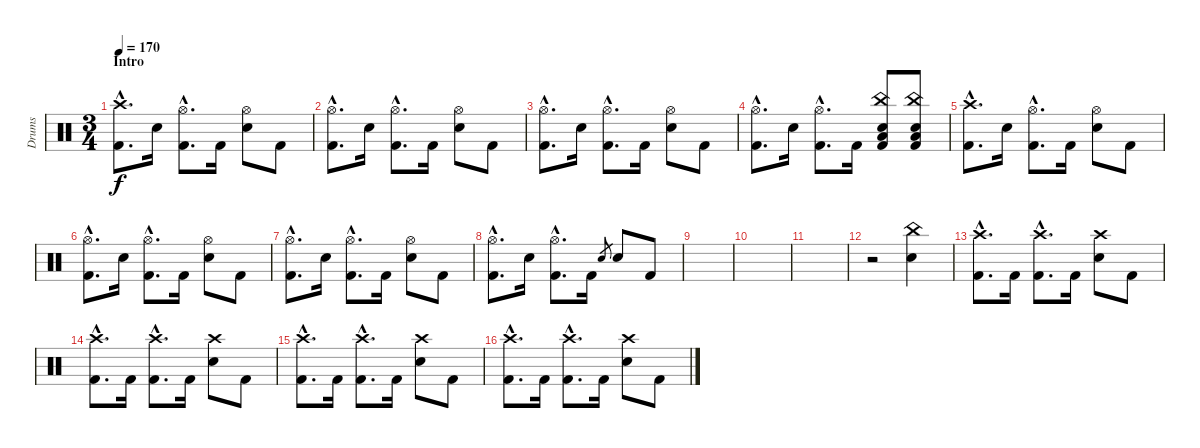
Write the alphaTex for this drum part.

\track ("Drums" "Drums") {instrument percussion}
\staff {score}
\articulation defaults
\ts (3 4)
\section ("" "Intro")
\tempo 170
\clef neutral
\ks c
("Crash high (hit)"{hac} "Kick (hit) 2"{hac}).8{d dy f} "Electric Snare (hit)".16 ("Hi-Hat (open)"{hac} "Kick (hit) 2"{hac}).8{d} "Kick (hit) 2".16 ("Hi-Hat (open)" "Electric Snare (hit)").8 "Kick (hit) 2".8 |
("Hi-Hat (open)"{hac} "Kick (hit) 2"{hac}).8{d} "Electric Snare (hit)".16 ("Hi-Hat (open)"{hac} "Kick (hit) 2"{hac}).8{d} "Kick (hit) 2".16 ("Hi-Hat (open)" "Electric Snare (hit)").8 "Kick (hit) 2".8 |
("Hi-Hat (open)"{hac} "Kick (hit) 2"{hac}).8{d} "Electric Snare (hit)".16 ("Hi-Hat (open)"{hac} "Kick (hit) 2"{hac}).8{d} "Kick (hit) 2".16 ("Hi-Hat (open)" "Electric Snare (hit)").8 "Kick (hit) 2".8 |
("Hi-Hat (open)"{hac} "Kick (hit) 2"{hac}).8{d} "Electric Snare (hit)".16 ("Hi-Hat (open)"{hac} "Kick (hit) 2"{hac}).8{d} "Kick (hit) 2".16 ("China (hit)" "Electric Snare (hit)" "Low Floor Tom (hit)" "Kick (hit) 2").8 ("China (hit)" "Electric Snare (hit)" "Low Floor Tom (hit)" "Kick (hit) 2").8 |
("Crash high (hit)"{hac} "Kick (hit) 2"{hac}).8{d} "Electric Snare (hit)".16 ("Hi-Hat (open)"{hac} "Kick (hit) 2"{hac}).8{d} "Kick (hit) 2".16 ("Hi-Hat (open)" "Electric Snare (hit)").8 "Kick (hit) 2".8 |
("Hi-Hat (open)"{hac} "Kick (hit) 2"{hac}).8{d} "Electric Snare (hit)".16 ("Hi-Hat (open)"{hac} "Kick (hit) 2"{hac}).8{d} "Kick (hit) 2".16 ("Hi-Hat (open)" "Electric Snare (hit)").8 "Kick (hit) 2".8 |
("Hi-Hat (open)"{hac} "Kick (hit) 2"{hac}).8{d} "Electric Snare (hit)".16 ("Hi-Hat (open)"{hac} "Kick (hit) 2"{hac}).8{d} "Kick (hit) 2".16 ("Hi-Hat (open)" "Electric Snare (hit)").8 "Kick (hit) 2".8 |
("Hi-Hat (open)"{hac} "Kick (hit) 2"{hac}).8{d} "Electric Snare (hit)".16 ("Hi-Hat (open)"{hac} "Kick (hit) 2"{hac}).8{d} "Kick (hit) 2".16 "Electric Snare (hit)".8{gr} "Electric Snare (hit)".8 "Kick (hit) 2".8 |
\section ("" "")
|
|
|
r.2 ("China (hit)" "Electric Snare (hit)").4 |
\section ("" "")
("Crash high (hit)"{hac} "Kick (hit) 2"{hac}).8{d} "Kick (hit) 2".16 ("Crash high (hit)"{hac} "Kick (hit) 2"{hac}).8{d} "Kick (hit) 2".16 ("Crash high (hit)" "Electric Snare (hit)").8 "Kick (hit) 2".8 |
("Crash high (hit)"{hac} "Kick (hit) 2"{hac}).8{d} "Kick (hit) 2".16 ("Crash high (hit)"{hac} "Kick (hit) 2"{hac}).8{d} "Kick (hit) 2".16 ("Crash high (hit)" "Electric Snare (hit)").8 "Kick (hit) 2".8 |
("Crash high (hit)"{hac} "Kick (hit) 2"{hac}).8{d} "Kick (hit) 2".16 ("Crash high (hit)"{hac} "Kick (hit) 2"{hac}).8{d} "Kick (hit) 2".16 ("Crash high (hit)" "Electric Snare (hit)").8 "Kick (hit) 2".8 |
("Crash high (hit)"{hac} "Kick (hit) 2"{hac}).8{d} "Kick (hit) 2".16 ("Crash high (hit)"{hac} "Kick (hit) 2"{hac}).8{d} "Kick (hit) 2".16 ("Crash high (hit)" "Electric Snare (hit)").8 "Kick (hit) 2".8
